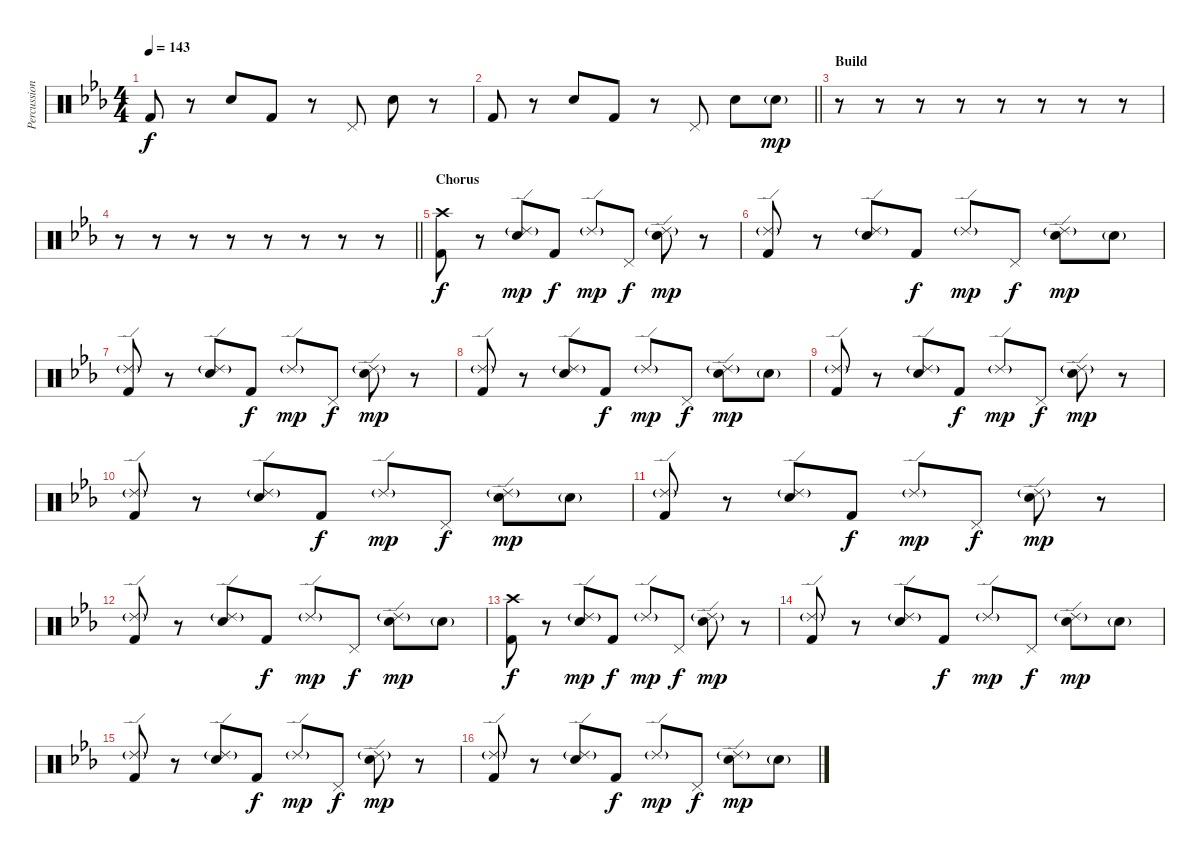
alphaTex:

\track ("Percussion" "Percussion") {instrument percussion}
\staff {score}
\articulation defaults
\ts (4 4)
\tempo 143
\clef neutral
\ks cminor "Kick (hit) 2".8{dy f}
r.8 "Electric Snare (hit)".8 "Kick (hit) 2".8 r.8 "Pedal Hi-Hat (hit)".8 "Electric Snare (hit)".8 r.8 |
\barLineRight lightlight "Kick (hit) 2".8
r.8 "Electric Snare (hit)".8 "Kick (hit) 2".8 r.8 "Pedal Hi-Hat (hit)".8 "Electric Snare (hit)".8 "Electric Snare (hit)"{g}.8{dy mp} |
\section ("" "Build")
r.8 r.8 r.8 r.8 r.8 r.8 r.8 r.8 |
\barLineRight lightlight
r.8 r.8 r.8 r.8 r.8 r.8 r.8 r.8 |
\section ("" "Chorus")
("Crash high (hit)" "Kick (hit) 2").8{dy f} r.8 ("Ride (edge) 2"{g} "Electric Snare (hit)").8{dy mp} "Kick (hit) 2".8{dy f} "Ride (edge) 2"{g}.8{dy mp} "Pedal Hi-Hat (hit)".8{dy f} ("Ride (edge) 2"{g} "Electric Snare (hit)").8{dy mp} r.8 |
("Ride (edge) 2"{g} "Kick (hit) 2").8 r.8 ("Ride (edge) 2"{g} "Electric Snare (hit)").8 "Kick (hit) 2".8{dy f} "Ride (edge) 2"{g}.8{dy mp} "Pedal Hi-Hat (hit)".8{dy f} ("Ride (edge) 2"{g} "Electric Snare (hit)").8{dy mp} "Electric Snare (hit)"{g}.8 |
("Ride (edge) 2"{g} "Kick (hit) 2").8 r.8 ("Ride (edge) 2"{g} "Electric Snare (hit)").8 "Kick (hit) 2".8{dy f} "Ride (edge) 2"{g}.8{dy mp} "Pedal Hi-Hat (hit)".8{dy f} ("Ride (edge) 2"{g} "Electric Snare (hit)").8{dy mp} r.8 |
("Ride (edge) 2"{g} "Kick (hit) 2").8 r.8 ("Ride (edge) 2"{g} "Electric Snare (hit)").8 "Kick (hit) 2".8{dy f} "Ride (edge) 2"{g}.8{dy mp} "Pedal Hi-Hat (hit)".8{dy f} ("Ride (edge) 2"{g} "Electric Snare (hit)").8{dy mp} "Electric Snare (hit)"{g}.8 |
("Ride (edge) 2"{g} "Kick (hit) 2").8 r.8 ("Ride (edge) 2"{g} "Electric Snare (hit)").8 "Kick (hit) 2".8{dy f} "Ride (edge) 2"{g}.8{dy mp} "Pedal Hi-Hat (hit)".8{dy f} ("Ride (edge) 2"{g} "Electric Snare (hit)").8{dy mp} r.8 |
("Ride (edge) 2"{g} "Kick (hit) 2").8 r.8 ("Ride (edge) 2"{g} "Electric Snare (hit)").8 "Kick (hit) 2".8{dy f} "Ride (edge) 2"{g}.8{dy mp} "Pedal Hi-Hat (hit)".8{dy f} ("Ride (edge) 2"{g} "Electric Snare (hit)").8{dy mp} "Electric Snare (hit)"{g}.8 |
("Ride (edge) 2"{g} "Kick (hit) 2").8 r.8 ("Ride (edge) 2"{g} "Electric Snare (hit)").8 "Kick (hit) 2".8{dy f} "Ride (edge) 2"{g}.8{dy mp} "Pedal Hi-Hat (hit)".8{dy f} ("Ride (edge) 2"{g} "Electric Snare (hit)").8{dy mp} r.8 |
("Ride (edge) 2"{g} "Kick (hit) 2").8 r.8 ("Ride (edge) 2"{g} "Electric Snare (hit)").8 "Kick (hit) 2".8{dy f} "Ride (edge) 2"{g}.8{dy mp} "Pedal Hi-Hat (hit)".8{dy f} ("Ride (edge) 2"{g} "Electric Snare (hit)").8{dy mp} "Electric Snare (hit)"{g}.8 |
("Crash high (hit)" "Kick (hit) 2").8{dy f} r.8 ("Ride (edge) 2"{g} "Electric Snare (hit)").8{dy mp} "Kick (hit) 2".8{dy f} "Ride (edge) 2"{g}.8{dy mp} "Pedal Hi-Hat (hit)".8{dy f} ("Ride (edge) 2"{g} "Electric Snare (hit)").8{dy mp} r.8 |
("Ride (edge) 2"{g} "Kick (hit) 2").8 r.8 ("Ride (edge) 2"{g} "Electric Snare (hit)").8 "Kick (hit) 2".8{dy f} "Ride (edge) 2"{g}.8{dy mp} "Pedal Hi-Hat (hit)".8{dy f} ("Ride (edge) 2"{g} "Electric Snare (hit)").8{dy mp} "Electric Snare (hit)"{g}.8 |
("Ride (edge) 2"{g} "Kick (hit) 2").8 r.8 ("Ride (edge) 2"{g} "Electric Snare (hit)").8 "Kick (hit) 2".8{dy f} "Ride (edge) 2"{g}.8{dy mp} "Pedal Hi-Hat (hit)".8{dy f} ("Ride (edge) 2"{g} "Electric Snare (hit)").8{dy mp} r.8 |
("Ride (edge) 2"{g} "Kick (hit) 2").8 r.8 ("Ride (edge) 2"{g} "Electric Snare (hit)").8 "Kick (hit) 2".8{dy f} "Ride (edge) 2"{g}.8{dy mp} "Pedal Hi-Hat (hit)".8{dy f} ("Ride (edge) 2"{g} "Electric Snare (hit)").8{dy mp} "Electric Snare (hit)"{g}.8
